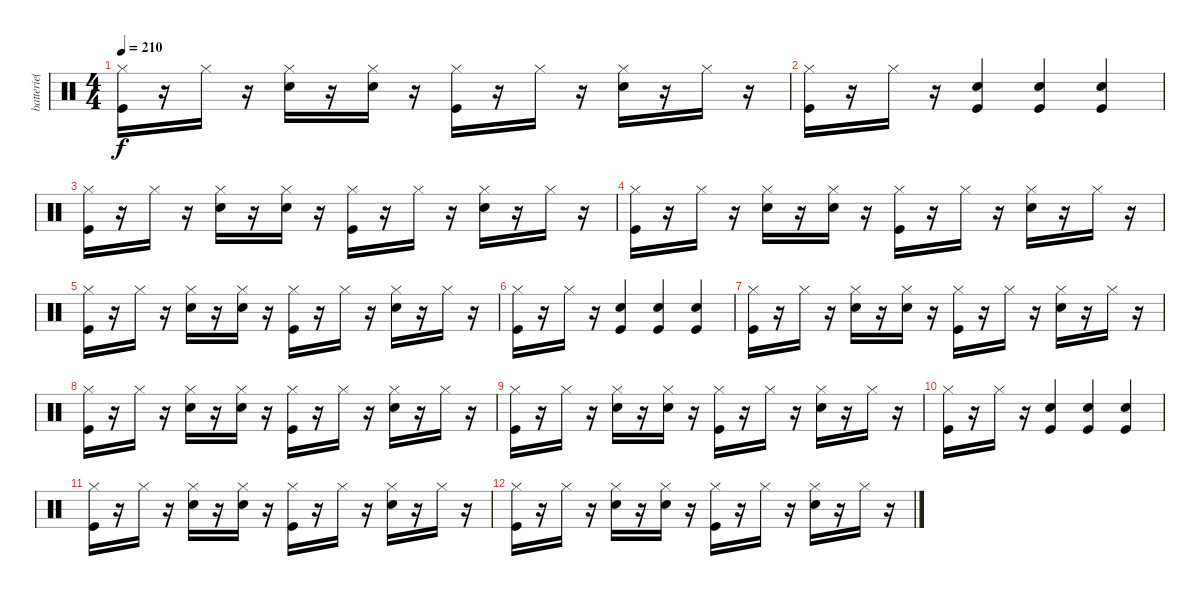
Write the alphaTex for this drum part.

\track ("batterie( Michael Davison )" "batterie( ") {instrument percussion}
\staff {score}
\articulation defaults
\ts (4 4)
\tempo 210
\clef neutral
\ks c
("Hi-Hat (closed)" "Kick (hit)").16{dy f volume 8} r.16 "Hi-Hat (closed)".16 r.16 ("Hi-Hat (closed)" "Snare (hit) 2").16 r.16 ("Hi-Hat (closed)" "Snare (hit) 2").16 r.16 ("Hi-Hat (closed)" "Kick (hit)").16 r.16 "Hi-Hat (closed)".16 r.16 ("Hi-Hat (closed)" "Snare (hit) 2").16 r.16 "Hi-Hat (closed)".16 r.16 |
("Hi-Hat (closed)" "Kick (hit)").16 r.16 "Hi-Hat (closed)".16 r.16 ("Snare (hit) 2" "Kick (hit)").4 ("Snare (hit) 2" "Kick (hit)").4 ("Snare (hit) 2" "Kick (hit)").4 |
("Hi-Hat (closed)" "Kick (hit)").16{volume 6} r.16 "Hi-Hat (closed)".16 r.16 ("Hi-Hat (closed)" "Snare (hit) 2").16 r.16 ("Hi-Hat (closed)" "Snare (hit) 2").16 r.16 ("Hi-Hat (closed)" "Kick (hit)").16 r.16 "Hi-Hat (closed)".16 r.16 ("Hi-Hat (closed)" "Snare (hit) 2").16 r.16 "Hi-Hat (closed)".16 r.16 |
("Hi-Hat (closed)" "Kick (hit)").16 r.16 "Hi-Hat (closed)".16 r.16 ("Hi-Hat (closed)" "Snare (hit) 2").16 r.16 ("Hi-Hat (closed)" "Snare (hit) 2").16 r.16 ("Hi-Hat (closed)" "Kick (hit)").16 r.16 "Hi-Hat (closed)".16 r.16 ("Hi-Hat (closed)" "Snare (hit) 2").16 r.16 "Hi-Hat (closed)".16 r.16 |
("Hi-Hat (closed)" "Kick (hit)").16{volume 4} r.16 "Hi-Hat (closed)".16 r.16 ("Hi-Hat (closed)" "Snare (hit) 2").16 r.16 ("Hi-Hat (closed)" "Snare (hit) 2").16 r.16 ("Hi-Hat (closed)" "Kick (hit)").16 r.16 "Hi-Hat (closed)".16 r.16 ("Hi-Hat (closed)" "Snare (hit) 2").16 r.16 "Hi-Hat (closed)".16 r.16 |
("Hi-Hat (closed)" "Kick (hit)").16 r.16 "Hi-Hat (closed)".16 r.16 ("Snare (hit) 2" "Kick (hit)").4 ("Snare (hit) 2" "Kick (hit)").4 ("Snare (hit) 2" "Kick (hit)").4 |
("Hi-Hat (closed)" "Kick (hit)").16 r.16 "Hi-Hat (closed)".16 r.16 ("Hi-Hat (closed)" "Snare (hit) 2").16 r.16 ("Hi-Hat (closed)" "Snare (hit) 2").16 r.16 ("Hi-Hat (closed)" "Kick (hit)").16 r.16 "Hi-Hat (closed)".16 r.16 ("Hi-Hat (closed)" "Snare (hit) 2").16 r.16 "Hi-Hat (closed)".16 r.16 |
("Hi-Hat (closed)" "Kick (hit)").16{volume 2} r.16 "Hi-Hat (closed)".16 r.16 ("Hi-Hat (closed)" "Snare (hit) 2").16 r.16 ("Hi-Hat (closed)" "Snare (hit) 2").16 r.16 ("Hi-Hat (closed)" "Kick (hit)").16 r.16 "Hi-Hat (closed)".16 r.16 ("Hi-Hat (closed)" "Snare (hit) 2").16 r.16 "Hi-Hat (closed)".16 r.16 |
("Hi-Hat (closed)" "Kick (hit)").16{volume 2} r.16 "Hi-Hat (closed)".16 r.16 ("Hi-Hat (closed)" "Snare (hit) 2").16 r.16 ("Hi-Hat (closed)" "Snare (hit) 2").16 r.16 ("Hi-Hat (closed)" "Kick (hit)").16 r.16 "Hi-Hat (closed)".16 r.16 ("Hi-Hat (closed)" "Snare (hit) 2").16 r.16 "Hi-Hat (closed)".16 r.16 |
("Hi-Hat (closed)" "Kick (hit)").16 r.16 "Hi-Hat (closed)".16 r.16 ("Snare (hit) 2" "Kick (hit)").4 ("Snare (hit) 2" "Kick (hit)").4 ("Snare (hit) 2" "Kick (hit)").4 |
("Hi-Hat (closed)" "Kick (hit)").16 r.16 "Hi-Hat (closed)".16 r.16 ("Hi-Hat (closed)" "Snare (hit) 2").16 r.16 ("Hi-Hat (closed)" "Snare (hit) 2").16 r.16 ("Hi-Hat (closed)" "Kick (hit)").16 r.16 "Hi-Hat (closed)".16 r.16 ("Hi-Hat (closed)" "Snare (hit) 2").16 r.16 "Hi-Hat (closed)".16 r.16 |
("Hi-Hat (closed)" "Kick (hit)").16{volume 0} r.16 "Hi-Hat (closed)".16 r.16 ("Hi-Hat (closed)" "Snare (hit) 2").16 r.16 ("Hi-Hat (closed)" "Snare (hit) 2").16 r.16 ("Hi-Hat (closed)" "Kick (hit)").16 r.16 "Hi-Hat (closed)".16 r.16 ("Hi-Hat (closed)" "Snare (hit) 2").16 r.16 "Hi-Hat (closed)".16 r.16
